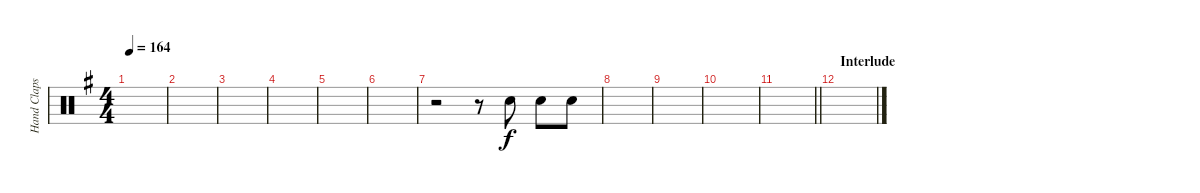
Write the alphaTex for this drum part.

\track ("Hand Claps" "Hand Claps") {instrument percussion}
\staff {score}
\articulation defaults
\ts (4 4)
\tempo 164
\clef neutral
\ks eminor
|
|
|
|
|
|
r.2 r.8 "Hand Clap (hit)".8 "Hand Clap (hit)".8 "Hand Clap (hit)".8 |
|
|
|
\barLineRight lightlight
|
\section ("" "Interlude")
